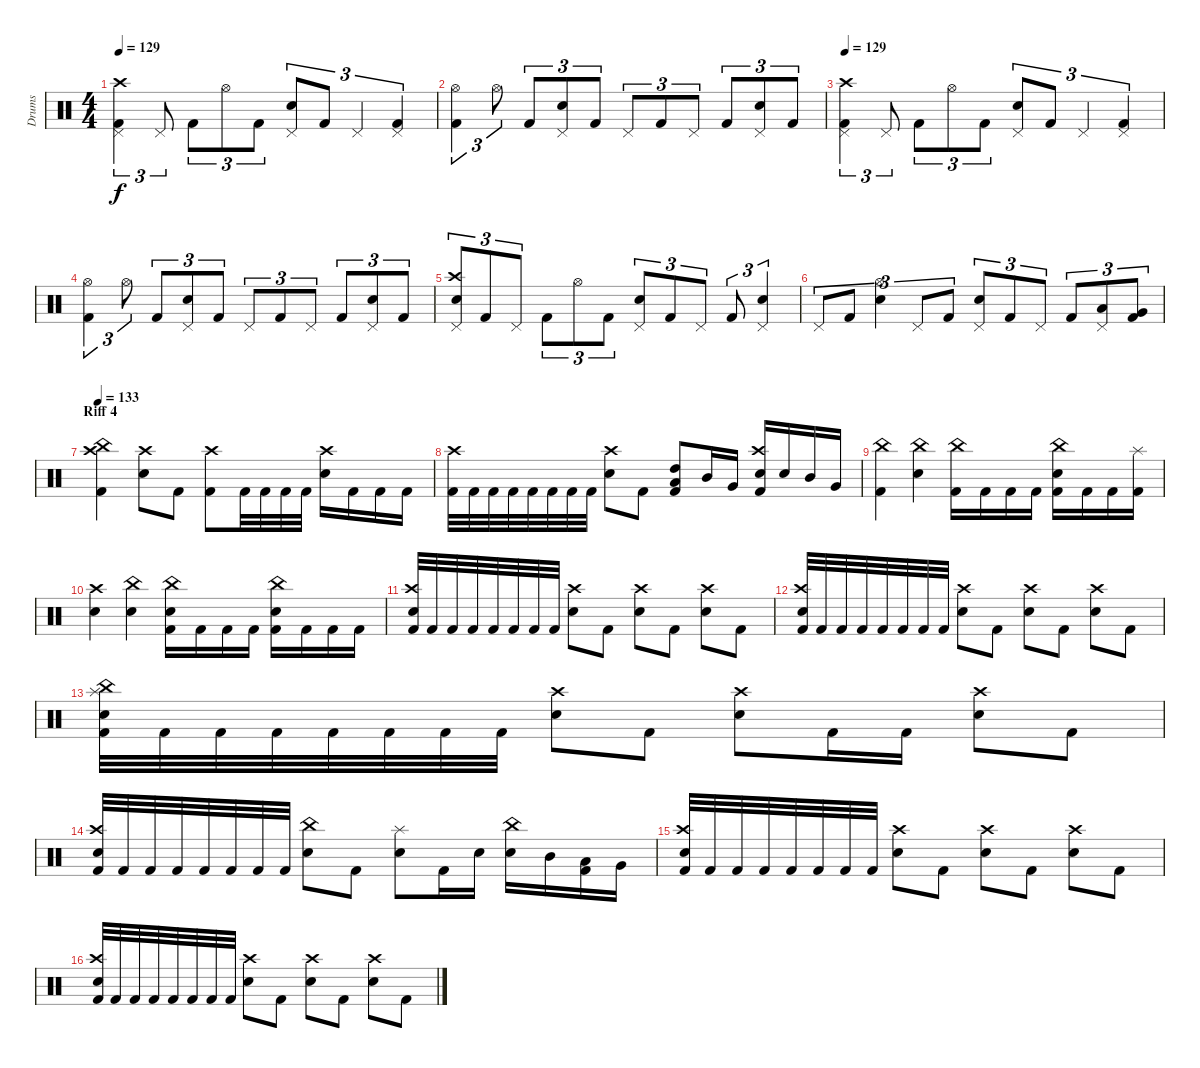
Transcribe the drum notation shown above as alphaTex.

\track ("Drums" "Drums") {instrument percussion}
\staff {score}
\articulation defaults
\ts (4 4)
\tempo 129
\clef neutral
\ks c
("Kick (hit) 2" "Pedal Hi-Hat (hit)" "Crash high (hit)").4{tu (3 2) dy f} "Pedal Hi-Hat (hit)".8{tu (3 2)} "Kick (hit) 2".8{tu (3 2)} "Hi-Hat (open)".8{tu (3 2)} "Kick (hit) 2".8{tu (3 2)} ("Snare (hit) 2" "Pedal Hi-Hat (hit)").8{tu (3 2)} "Kick (hit) 2".8{tu (3 2)} "Pedal Hi-Hat (hit)".4{tu (3 2)} ("Kick (hit) 2" "Pedal Hi-Hat (hit)").4{tu (3 2)} |
("Kick (hit) 2" "Hi-Hat (open)").4{tu (3 2)} "Hi-Hat (open)".8{tu (3 2)} "Kick (hit) 2".8{tu (3 2)} ("Snare (hit) 2" "Pedal Hi-Hat (hit)").8{tu (3 2)} "Kick (hit) 2".8{tu (3 2)} "Pedal Hi-Hat (hit)".8{tu (3 2)} "Kick (hit) 2".8{tu (3 2)} "Pedal Hi-Hat (hit)".8{tu (3 2)} "Kick (hit) 2".8{tu (3 2)} ("Snare (hit) 2" "Pedal Hi-Hat (hit)").8{tu (3 2)} "Kick (hit) 2".8{tu (3 2)} |
\tempo 129
("Kick (hit) 2" "Pedal Hi-Hat (hit)" "Crash high (hit)").4{tu (3 2)} "Pedal Hi-Hat (hit)".8{tu (3 2)} "Kick (hit) 2".8{tu (3 2)} "Hi-Hat (open)".8{tu (3 2)} "Kick (hit) 2".8{tu (3 2)} ("Snare (hit) 2" "Pedal Hi-Hat (hit)").8{tu (3 2)} "Kick (hit) 2".8{tu (3 2)} "Pedal Hi-Hat (hit)".4{tu (3 2)} ("Kick (hit) 2" "Pedal Hi-Hat (hit)").4{tu (3 2)} |
("Kick (hit) 2" "Hi-Hat (open)").4{tu (3 2)} "Hi-Hat (open)".8{tu (3 2)} "Kick (hit) 2".8{tu (3 2)} ("Snare (hit) 2" "Pedal Hi-Hat (hit)").8{tu (3 2)} "Kick (hit) 2".8{tu (3 2)} "Pedal Hi-Hat (hit)".8{tu (3 2)} "Kick (hit) 2".8{tu (3 2)} "Pedal Hi-Hat (hit)".8{tu (3 2)} "Kick (hit) 2".8{tu (3 2)} ("Snare (hit) 2" "Pedal Hi-Hat (hit)").8{tu (3 2)} "Kick (hit) 2".8{tu (3 2)} |
("Snare (hit) 2" "Pedal Hi-Hat (hit)" "Crash high (hit)").8{tu (3 2)} "Kick (hit) 2".8{tu (3 2)} "Pedal Hi-Hat (hit)".8{tu (3 2)} "Kick (hit) 2".8{tu (3 2)} "Hi-Hat (open)".8{tu (3 2)} "Kick (hit) 2".8{tu (3 2)} ("Snare (hit) 2" "Pedal Hi-Hat (hit)").8{tu (3 2)} "Kick (hit) 2".8{tu (3 2)} "Pedal Hi-Hat (hit)".8{tu (3 2)} "Kick (hit) 2".8{tu (3 2)} ("Snare (hit) 2" "Pedal Hi-Hat (hit)").4{tu (3 2)} |
"Pedal Hi-Hat (hit)".8{tu (3 2)} "Kick (hit) 2".8{tu (3 2)} ("Snare (hit) 2" "Hi-Hat (open)").4{tu (3 2)} "Pedal Hi-Hat (hit)".8{tu (3 2)} "Kick (hit) 2".8{tu (3 2)} ("Snare (hit) 2" "Pedal Hi-Hat (hit)").8{tu (3 2)} "Kick (hit) 2".8{tu (3 2)} "Pedal Hi-Hat (hit)".8{tu (3 2)} "Kick (hit) 2".8{tu (3 2)} ("Low Tom (hit)" "Pedal Hi-Hat (hit)").8{tu (3 2)} ("Kick (hit) 2" "Very Low Tom (hit)").8{tu (3 2)} |
\section ("" "Riff 4")
\tempo 133
("Kick (hit) 2" "China (hit)" "Crash high (hit)").4 ("Snare (hit) 2" "Crash high (hit)").8 "Kick (hit) 2".8 ("Kick (hit) 2" "Crash high (hit)").8 "Kick (hit) 2".32 "Kick (hit) 2".32 "Kick (hit) 2".32 "Kick (hit) 2".32 ("Snare (hit) 2" "Crash high (hit)").16 "Kick (hit) 2".16 "Kick (hit) 2".16 "Kick (hit) 2".16 |
("Kick (hit) 2" "Crash high (hit)").32 "Kick (hit) 2".32 "Kick (hit) 2".32 "Kick (hit) 2".32 "Kick (hit) 2".32 "Kick (hit) 2".32 "Kick (hit) 2".32 "Kick (hit) 2".32 ("Snare (hit) 2" "Crash high (hit)").8 "Kick (hit) 2".8 ("Kick (hit) 2" "Low Tom (hit)" "High Tom (hit)").8 "Mid Tom (hit)".16 "Very Low Tom (hit)".16 ("Kick (hit) 2" "Snare (hit) 2" "Crash high (hit)").16 "Snare (hit) 2".16 "Mid Tom (hit)".16 "Very Low Tom (hit)".16 |
("Kick (hit) 2" "China (hit)").4 ("Snare (hit) 2" "China (hit)").4 ("Kick (hit) 2" "China (hit)").16 "Kick (hit) 2".16 "Kick (hit) 2".16 "Kick (hit) 2".16 ("Kick (hit) 2" "Snare (hit) 2" "China (hit)").16 "Kick (hit) 2".16 "Kick (hit) 2".16 ("Kick (hit) 2" "Splash (hit)").16 |
("Snare (hit) 2" "Crash high (hit)").4 ("Snare (hit) 2" "China (hit)").4 ("Kick (hit) 2" "Snare (hit) 2" "China (hit)").16 "Kick (hit) 2".16 "Kick (hit) 2".16 "Kick (hit) 2".16 ("Kick (hit) 2" "Snare (hit) 2" "China (hit)").16 "Kick (hit) 2".16 "Kick (hit) 2".16 "Kick (hit) 2".16 |
("Kick (hit) 2" "Snare (hit) 2" "Crash high (hit)").32 "Kick (hit) 2".32 "Kick (hit) 2".32 "Kick (hit) 2".32 "Kick (hit) 2".32 "Kick (hit) 2".32 "Kick (hit) 2".32 "Kick (hit) 2".32 ("Snare (hit) 2" "Crash high (hit)").8 "Kick (hit) 2".8 ("Snare (hit) 2" "Crash high (hit)").8 "Kick (hit) 2".8 ("Snare (hit) 2" "Crash high (hit)").8 "Kick (hit) 2".8 |
("Kick (hit) 2" "Snare (hit) 2" "Crash high (hit)").32 "Kick (hit) 2".32 "Kick (hit) 2".32 "Kick (hit) 2".32 "Kick (hit) 2".32 "Kick (hit) 2".32 "Kick (hit) 2".32 "Kick (hit) 2".32 ("Snare (hit) 2" "Crash high (hit)").8 "Kick (hit) 2".8 ("Snare (hit) 2" "Crash high (hit)").8 "Kick (hit) 2".8 ("Snare (hit) 2" "Crash high (hit)").8 "Kick (hit) 2".8 |
("Kick (hit) 2" "Snare (hit) 2" "China (hit)" "Splash (hit)").32 "Kick (hit) 2".32 "Kick (hit) 2".32 "Kick (hit) 2".32 "Kick (hit) 2".32 "Kick (hit) 2".32 "Kick (hit) 2".32 "Kick (hit) 2".32 ("Snare (hit) 2" "Crash high (hit)").8 "Kick (hit) 2".8 ("Snare (hit) 2" "Crash high (hit)").8 "Kick (hit) 2".16 "Kick (hit) 2".16 ("Snare (hit) 2" "Crash high (hit)").8 "Kick (hit) 2".8 |
("Kick (hit) 2" "Snare (hit) 2" "Crash high (hit)").32 "Kick (hit) 2".32 "Kick (hit) 2".32 "Kick (hit) 2".32 "Kick (hit) 2".32 "Kick (hit) 2".32 "Kick (hit) 2".32 "Kick (hit) 2".32 ("Snare (hit) 2" "China (hit)").8 "Kick (hit) 2".8 ("Snare (hit) 2" "Splash (hit)").8 "Kick (hit) 2".16 "Snare (hit) 2".16 ("Snare (hit) 2" "China (hit)").16 "Mid Tom (hit)".16 ("Kick (hit) 2" "Low Tom (hit)").16 "Very Low Tom (hit)".16 |
("Kick (hit) 2" "Snare (hit) 2" "Crash high (hit)").32 "Kick (hit) 2".32 "Kick (hit) 2".32 "Kick (hit) 2".32 "Kick (hit) 2".32 "Kick (hit) 2".32 "Kick (hit) 2".32 "Kick (hit) 2".32 ("Snare (hit) 2" "Crash high (hit)").8 "Kick (hit) 2".8 ("Snare (hit) 2" "Crash high (hit)").8 "Kick (hit) 2".8 ("Snare (hit) 2" "Crash high (hit)").8 "Kick (hit) 2".8 |
("Kick (hit) 2" "Snare (hit) 2" "Crash high (hit)").32 "Kick (hit) 2".32 "Kick (hit) 2".32 "Kick (hit) 2".32 "Kick (hit) 2".32 "Kick (hit) 2".32 "Kick (hit) 2".32 "Kick (hit) 2".32 ("Snare (hit) 2" "Crash high (hit)").8 "Kick (hit) 2".8 ("Snare (hit) 2" "Crash high (hit)").8 "Kick (hit) 2".8 ("Snare (hit) 2" "Crash high (hit)").8 "Kick (hit) 2".8
